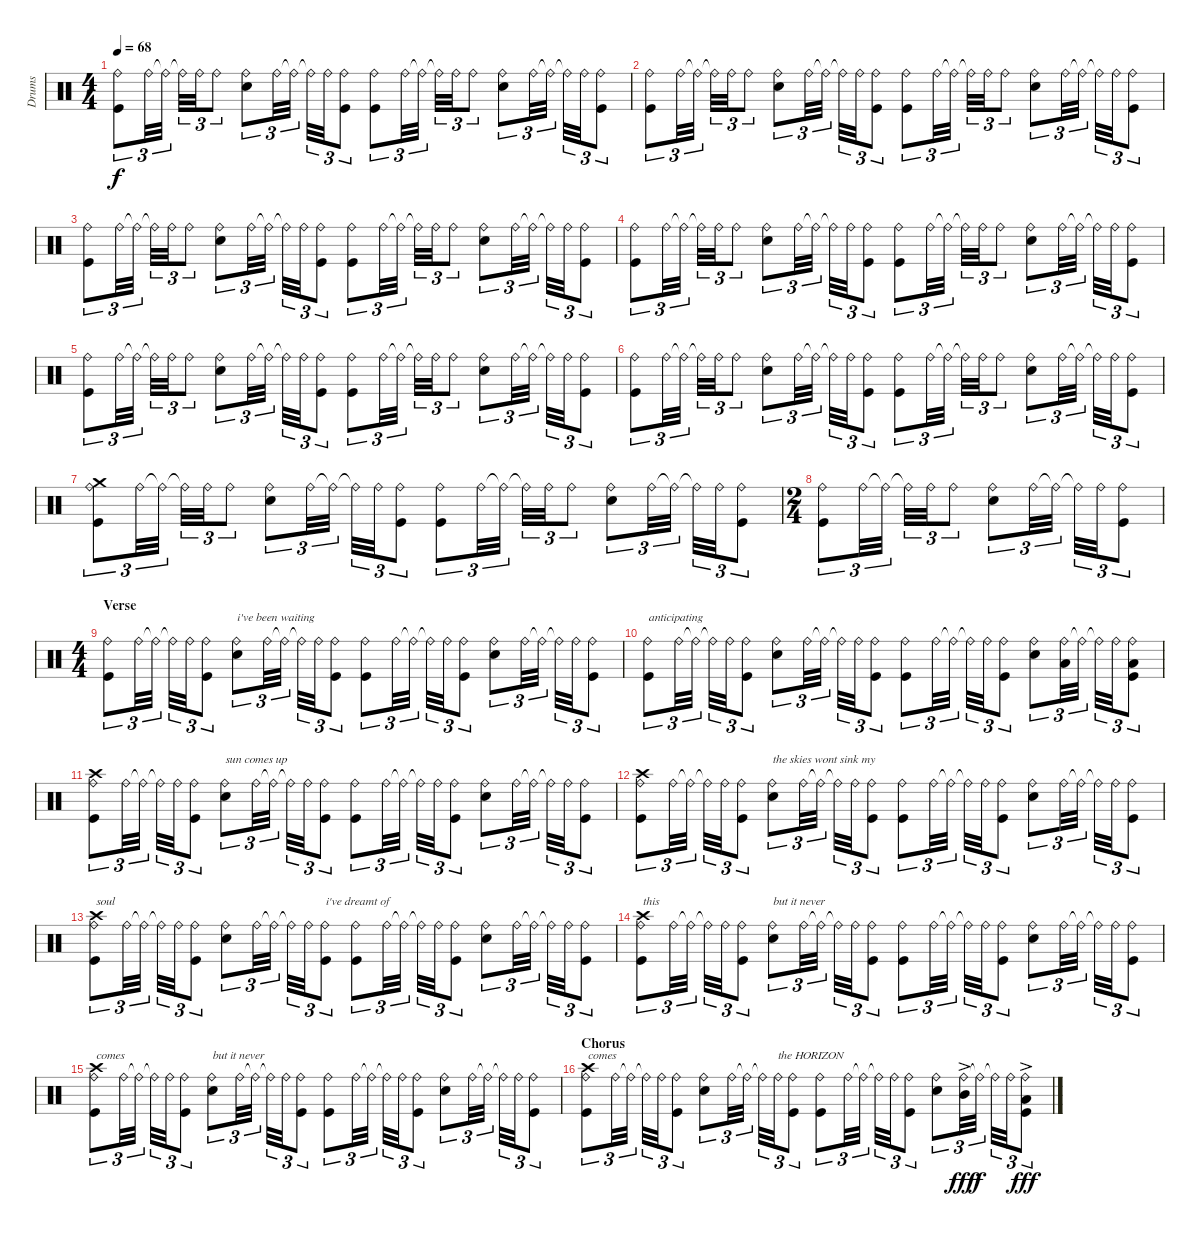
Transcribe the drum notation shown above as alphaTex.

\track ("Drums" "Drums") {instrument percussion}
\staff {score}
\articulation defaults
\ts (4 4)
\tempo 68
\clef neutral
\ks c
("Ride (bell)" "Kick (hit)").8{tu (3 2) dy f} "Ride (bell)".32{tu (3 2)} "Ride (bell)"{t}.32{tu (3 2)} "Ride (bell)"{t}.32{tu (3 2)} "Ride (bell)".32{tu (3 2)} "Ride (bell)".8{tu (3 2)} ("Ride (bell)" "Snare (hit) 2").8{tu (3 2)} "Ride (bell)".32{tu (3 2)} "Ride (bell)"{t}.32{tu (3 2)} "Ride (bell)"{t}.32{tu (3 2)} "Ride (bell)".32{tu (3 2)} ("Ride (bell)" "Kick (hit)").8{tu (3 2)} ("Ride (bell)" "Kick (hit)").8{tu (3 2)} "Ride (bell)".32{tu (3 2)} "Ride (bell)"{t}.32{tu (3 2)} "Ride (bell)"{t}.32{tu (3 2)} "Ride (bell)".32{tu (3 2)} "Ride (bell)".8{tu (3 2)} ("Ride (bell)" "Snare (hit) 2").8{tu (3 2)} "Ride (bell)".32{tu (3 2)} "Ride (bell)"{t}.32{tu (3 2)} "Ride (bell)"{t}.32{tu (3 2)} "Ride (bell)".32{tu (3 2)} ("Ride (bell)" "Kick (hit)").8{tu (3 2)} |
("Ride (bell)" "Kick (hit)").8{tu (3 2)} "Ride (bell)".32{tu (3 2)} "Ride (bell)"{t}.32{tu (3 2)} "Ride (bell)"{t}.32{tu (3 2)} "Ride (bell)".32{tu (3 2)} "Ride (bell)".8{tu (3 2)} ("Ride (bell)" "Snare (hit) 2").8{tu (3 2)} "Ride (bell)".32{tu (3 2)} "Ride (bell)"{t}.32{tu (3 2)} "Ride (bell)"{t}.32{tu (3 2)} "Ride (bell)".32{tu (3 2)} ("Ride (bell)" "Kick (hit)").8{tu (3 2)} ("Ride (bell)" "Kick (hit)").8{tu (3 2)} "Ride (bell)".32{tu (3 2)} "Ride (bell)"{t}.32{tu (3 2)} "Ride (bell)"{t}.32{tu (3 2)} "Ride (bell)".32{tu (3 2)} "Ride (bell)".8{tu (3 2)} ("Ride (bell)" "Snare (hit) 2").8{tu (3 2)} "Ride (bell)".32{tu (3 2)} "Ride (bell)"{t}.32{tu (3 2)} "Ride (bell)"{t}.32{tu (3 2)} "Ride (bell)".32{tu (3 2)} ("Ride (bell)" "Kick (hit)").8{tu (3 2)} |
("Ride (bell)" "Kick (hit)").8{tu (3 2)} "Ride (bell)".32{tu (3 2)} "Ride (bell)"{t}.32{tu (3 2)} "Ride (bell)"{t}.32{tu (3 2)} "Ride (bell)".32{tu (3 2)} "Ride (bell)".8{tu (3 2)} ("Ride (bell)" "Snare (hit) 2").8{tu (3 2)} "Ride (bell)".32{tu (3 2)} "Ride (bell)"{t}.32{tu (3 2)} "Ride (bell)"{t}.32{tu (3 2)} "Ride (bell)".32{tu (3 2)} ("Ride (bell)" "Kick (hit)").8{tu (3 2)} ("Ride (bell)" "Kick (hit)").8{tu (3 2)} "Ride (bell)".32{tu (3 2)} "Ride (bell)"{t}.32{tu (3 2)} "Ride (bell)"{t}.32{tu (3 2)} "Ride (bell)".32{tu (3 2)} "Ride (bell)".8{tu (3 2)} ("Ride (bell)" "Snare (hit) 2").8{tu (3 2)} "Ride (bell)".32{tu (3 2)} "Ride (bell)"{t}.32{tu (3 2)} "Ride (bell)"{t}.32{tu (3 2)} "Ride (bell)".32{tu (3 2)} ("Ride (bell)" "Kick (hit)").8{tu (3 2)} |
("Ride (bell)" "Kick (hit)").8{tu (3 2)} "Ride (bell)".32{tu (3 2)} "Ride (bell)"{t}.32{tu (3 2)} "Ride (bell)"{t}.32{tu (3 2)} "Ride (bell)".32{tu (3 2)} "Ride (bell)".8{tu (3 2)} ("Ride (bell)" "Snare (hit) 2").8{tu (3 2)} "Ride (bell)".32{tu (3 2)} "Ride (bell)"{t}.32{tu (3 2)} "Ride (bell)"{t}.32{tu (3 2)} "Ride (bell)".32{tu (3 2)} ("Ride (bell)" "Kick (hit)").8{tu (3 2)} ("Ride (bell)" "Kick (hit)").8{tu (3 2)} "Ride (bell)".32{tu (3 2)} "Ride (bell)"{t}.32{tu (3 2)} "Ride (bell)"{t}.32{tu (3 2)} "Ride (bell)".32{tu (3 2)} "Ride (bell)".8{tu (3 2)} ("Ride (bell)" "Snare (hit) 2").8{tu (3 2)} "Ride (bell)".32{tu (3 2)} "Ride (bell)"{t}.32{tu (3 2)} "Ride (bell)"{t}.32{tu (3 2)} "Ride (bell)".32{tu (3 2)} ("Ride (bell)" "Kick (hit)").8{tu (3 2)} |
("Ride (bell)" "Kick (hit)").8{tu (3 2)} "Ride (bell)".32{tu (3 2)} "Ride (bell)"{t}.32{tu (3 2)} "Ride (bell)"{t}.32{tu (3 2)} "Ride (bell)".32{tu (3 2)} "Ride (bell)".8{tu (3 2)} ("Ride (bell)" "Snare (hit) 2").8{tu (3 2)} "Ride (bell)".32{tu (3 2)} "Ride (bell)"{t}.32{tu (3 2)} "Ride (bell)"{t}.32{tu (3 2)} "Ride (bell)".32{tu (3 2)} ("Ride (bell)" "Kick (hit)").8{tu (3 2)} ("Ride (bell)" "Kick (hit)").8{tu (3 2)} "Ride (bell)".32{tu (3 2)} "Ride (bell)"{t}.32{tu (3 2)} "Ride (bell)"{t}.32{tu (3 2)} "Ride (bell)".32{tu (3 2)} "Ride (bell)".8{tu (3 2)} ("Ride (bell)" "Snare (hit) 2").8{tu (3 2)} "Ride (bell)".32{tu (3 2)} "Ride (bell)"{t}.32{tu (3 2)} "Ride (bell)"{t}.32{tu (3 2)} "Ride (bell)".32{tu (3 2)} ("Ride (bell)" "Kick (hit)").8{tu (3 2)} |
("Ride (bell)" "Kick (hit)").8{tu (3 2)} "Ride (bell)".32{tu (3 2)} "Ride (bell)"{t}.32{tu (3 2)} "Ride (bell)"{t}.32{tu (3 2)} "Ride (bell)".32{tu (3 2)} "Ride (bell)".8{tu (3 2)} ("Ride (bell)" "Snare (hit) 2").8{tu (3 2)} "Ride (bell)".32{tu (3 2)} "Ride (bell)"{t}.32{tu (3 2)} "Ride (bell)"{t}.32{tu (3 2)} "Ride (bell)".32{tu (3 2)} ("Ride (bell)" "Kick (hit)").8{tu (3 2)} ("Ride (bell)" "Kick (hit)").8{tu (3 2)} "Ride (bell)".32{tu (3 2)} "Ride (bell)"{t}.32{tu (3 2)} "Ride (bell)"{t}.32{tu (3 2)} "Ride (bell)".32{tu (3 2)} "Ride (bell)".8{tu (3 2)} ("Ride (bell)" "Snare (hit) 2").8{tu (3 2)} "Ride (bell)".32{tu (3 2)} "Ride (bell)"{t}.32{tu (3 2)} "Ride (bell)"{t}.32{tu (3 2)} "Ride (bell)".32{tu (3 2)} ("Ride (bell)" "Kick (hit)").8{tu (3 2)} |
("Ride (bell)" "Crash medium (hit)" "Kick (hit)").8{tu (3 2)} "Ride (bell)".32{tu (3 2)} "Ride (bell)"{t}.32{tu (3 2)} "Ride (bell)"{t}.32{tu (3 2)} "Ride (bell)".32{tu (3 2)} "Ride (bell)".8{tu (3 2)} ("Ride (bell)" "Snare (hit) 2").8{tu (3 2)} "Ride (bell)".32{tu (3 2)} "Ride (bell)"{t}.32{tu (3 2)} "Ride (bell)"{t}.32{tu (3 2)} "Ride (bell)".32{tu (3 2)} ("Ride (bell)" "Kick (hit)").8{tu (3 2)} ("Ride (bell)" "Kick (hit)").8{tu (3 2)} "Ride (bell)".32{tu (3 2)} "Ride (bell)"{t}.32{tu (3 2)} "Ride (bell)"{t}.32{tu (3 2)} "Ride (bell)".32{tu (3 2)} "Ride (bell)".8{tu (3 2)} ("Ride (bell)" "Snare (hit) 2").8{tu (3 2)} "Ride (bell)".32{tu (3 2)} "Ride (bell)"{t}.32{tu (3 2)} "Ride (bell)"{t}.32{tu (3 2)} "Ride (bell)".32{tu (3 2)} ("Ride (bell)" "Kick (hit)").8{tu (3 2)} |
\ts (2 4)
("Ride (bell)" "Kick (hit)").8{tu (3 2)} "Ride (bell)".32{tu (3 2)} "Ride (bell)"{t}.32{tu (3 2)} "Ride (bell)"{t}.32{tu (3 2)} "Ride (bell)".32{tu (3 2)} "Ride (bell)".8{tu (3 2)} ("Ride (bell)" "Snare (hit) 2").8{tu (3 2)} "Ride (bell)".32{tu (3 2)} "Ride (bell)"{t}.32{tu (3 2)} "Ride (bell)"{t}.32{tu (3 2)} "Ride (bell)".32{tu (3 2)} ("Ride (bell)" "Kick (hit)").8{tu (3 2)} |
\ts (4 4)
\section ("" "Verse")
("Ride (bell)" "Kick (hit)").8{tu (3 2)} "Ride (bell)".32{tu (3 2)} "Ride (bell)"{t}.32{tu (3 2)} "Ride (bell)"{t}.32{tu (3 2)} "Ride (bell)".32{tu (3 2)} ("Ride (bell)" "Kick (hit)").8{tu (3 2)} ("Ride (bell)" "Snare (hit) 2").8{tu (3 2) txt "i've been waiting"} "Ride (bell)".32{tu (3 2)} "Ride (bell)"{t}.32{tu (3 2)} "Ride (bell)"{t}.32{tu (3 2)} "Ride (bell)".32{tu (3 2)} ("Ride (bell)" "Kick (hit)").8{tu (3 2)} ("Ride (bell)" "Kick (hit)").8{tu (3 2)} "Ride (bell)".32{tu (3 2)} "Ride (bell)"{t}.32{tu (3 2)} "Ride (bell)"{t}.32{tu (3 2)} "Ride (bell)".32{tu (3 2)} ("Ride (bell)" "Kick (hit)").8{tu (3 2)} ("Ride (bell)" "Snare (hit) 2").8{tu (3 2)} "Ride (bell)".32{tu (3 2)} "Ride (bell)"{t}.32{tu (3 2)} "Ride (bell)"{t}.32{tu (3 2)} "Ride (bell)".32{tu (3 2)} ("Ride (bell)" "Kick (hit)").8{tu (3 2)} |
("Ride (bell)" "Kick (hit)").8{tu (3 2) txt "anticipating"} "Ride (bell)".32{tu (3 2)} "Ride (bell)"{t}.32{tu (3 2)} "Ride (bell)"{t}.32{tu (3 2)} "Ride (bell)".32{tu (3 2)} ("Ride (bell)" "Kick (hit)").8{tu (3 2)} ("Ride (bell)" "Snare (hit) 2").8{tu (3 2)} "Ride (bell)".32{tu (3 2)} "Ride (bell)"{t}.32{tu (3 2)} "Ride (bell)"{t}.32{tu (3 2)} "Ride (bell)".32{tu (3 2)} ("Ride (bell)" "Kick (hit)").8{tu (3 2)} ("Ride (bell)" "Kick (hit)").8{tu (3 2)} "Ride (bell)".32{tu (3 2)} "Ride (bell)"{t}.32{tu (3 2)} "Ride (bell)"{t}.32{tu (3 2)} "Ride (bell)".32{tu (3 2)} ("Ride (bell)" "Kick (hit)").8{tu (3 2)} ("Ride (bell)" "Snare (hit) 2").8{tu (3 2)} ("Ride (bell)" "Low Tom (hit)").32{tu (3 2)} "Ride (bell)"{t}.32{tu (3 2)} "Ride (bell)"{t}.32{tu (3 2)} "Ride (bell)".32{tu (3 2)} ("Ride (bell)" "Low Tom (hit)" "Kick (hit)").8{tu (3 2)} |
("Ride (bell)" "Crash high (hit)" "Kick (hit)").8{tu (3 2)} "Ride (bell)".32{tu (3 2)} "Ride (bell)"{t}.32{tu (3 2)} "Ride (bell)"{t}.32{tu (3 2)} "Ride (bell)".32{tu (3 2)} ("Ride (bell)" "Kick (hit)").8{tu (3 2)} ("Ride (bell)" "Snare (hit) 2").8{tu (3 2) txt "sun comes up "} "Ride (bell)".32{tu (3 2)} "Ride (bell)"{t}.32{tu (3 2)} "Ride (bell)"{t}.32{tu (3 2)} "Ride (bell)".32{tu (3 2)} ("Ride (bell)" "Kick (hit)").8{tu (3 2)} ("Ride (bell)" "Kick (hit)").8{tu (3 2)} "Ride (bell)".32{tu (3 2)} "Ride (bell)"{t}.32{tu (3 2)} "Ride (bell)"{t}.32{tu (3 2)} "Ride (bell)".32{tu (3 2)} ("Ride (bell)" "Kick (hit)").8{tu (3 2)} ("Ride (bell)" "Snare (hit) 2").8{tu (3 2)} "Ride (bell)".32{tu (3 2)} "Ride (bell)"{t}.32{tu (3 2)} "Ride (bell)"{t}.32{tu (3 2)} "Ride (bell)".32{tu (3 2)} ("Ride (bell)" "Kick (hit)").8{tu (3 2)} |
("Ride (bell)" "Crash high (hit)" "Kick (hit)").8{tu (3 2)} "Ride (bell)".32{tu (3 2)} "Ride (bell)"{t}.32{tu (3 2)} "Ride (bell)"{t}.32{tu (3 2)} "Ride (bell)".32{tu (3 2)} ("Ride (bell)" "Kick (hit)").8{tu (3 2)} ("Ride (bell)" "Snare (hit) 2").8{tu (3 2) txt "the skies wont sink my "} "Ride (bell)".32{tu (3 2)} "Ride (bell)"{t}.32{tu (3 2)} "Ride (bell)"{t}.32{tu (3 2)} "Ride (bell)".32{tu (3 2)} ("Ride (bell)" "Kick (hit)").8{tu (3 2)} ("Ride (bell)" "Kick (hit)").8{tu (3 2)} "Ride (bell)".32{tu (3 2)} "Ride (bell)"{t}.32{tu (3 2)} "Ride (bell)"{t}.32{tu (3 2)} "Ride (bell)".32{tu (3 2)} ("Ride (bell)" "Kick (hit)").8{tu (3 2)} ("Ride (bell)" "Snare (hit) 2").8{tu (3 2)} "Ride (bell)".32{tu (3 2)} "Ride (bell)"{t}.32{tu (3 2)} "Ride (bell)"{t}.32{tu (3 2)} "Ride (bell)".32{tu (3 2)} ("Ride (bell)" "Kick (hit)").8{tu (3 2)} |
("Ride (bell)" "Crash high (hit)" "Kick (hit)").8{tu (3 2) txt "soul"} "Ride (bell)".32{tu (3 2)} "Ride (bell)"{t}.32{tu (3 2)} "Ride (bell)"{t}.32{tu (3 2)} "Ride (bell)".32{tu (3 2)} ("Ride (bell)" "Kick (hit)").8{tu (3 2)} ("Ride (bell)" "Snare (hit) 2").8{tu (3 2)} "Ride (bell)".32{tu (3 2)} "Ride (bell)"{t}.32{tu (3 2)} "Ride (bell)"{t}.32{tu (3 2)} "Ride (bell)".32{tu (3 2)} ("Ride (bell)" "Kick (hit)").8{tu (3 2) txt "i've dreamt of"} ("Ride (bell)" "Kick (hit)").8{tu (3 2)} "Ride (bell)".32{tu (3 2)} "Ride (bell)"{t}.32{tu (3 2)} "Ride (bell)"{t}.32{tu (3 2)} "Ride (bell)".32{tu (3 2)} ("Ride (bell)" "Kick (hit)").8{tu (3 2)} ("Ride (bell)" "Snare (hit) 2").8{tu (3 2)} "Ride (bell)".32{tu (3 2)} "Ride (bell)"{t}.32{tu (3 2)} "Ride (bell)"{t}.32{tu (3 2)} "Ride (bell)".32{tu (3 2)} ("Ride (bell)" "Kick (hit)").8{tu (3 2)} |
("Ride (bell)" "Crash high (hit)" "Kick (hit)").8{tu (3 2) txt "this"} "Ride (bell)".32{tu (3 2)} "Ride (bell)"{t}.32{tu (3 2)} "Ride (bell)"{t}.32{tu (3 2)} "Ride (bell)".32{tu (3 2)} ("Ride (bell)" "Kick (hit)").8{tu (3 2)} ("Ride (bell)" "Snare (hit) 2").8{tu (3 2) txt "but it never"} "Ride (bell)".32{tu (3 2)} "Ride (bell)"{t}.32{tu (3 2)} "Ride (bell)"{t}.32{tu (3 2)} "Ride (bell)".32{tu (3 2)} ("Ride (bell)" "Kick (hit)").8{tu (3 2)} ("Ride (bell)" "Kick (hit)").8{tu (3 2)} "Ride (bell)".32{tu (3 2)} "Ride (bell)"{t}.32{tu (3 2)} "Ride (bell)"{t}.32{tu (3 2)} "Ride (bell)".32{tu (3 2)} ("Ride (bell)" "Kick (hit)").8{tu (3 2)} ("Ride (bell)" "Snare (hit) 2").8{tu (3 2)} "Ride (bell)".32{tu (3 2)} "Ride (bell)"{t}.32{tu (3 2)} "Ride (bell)"{t}.32{tu (3 2)} "Ride (bell)".32{tu (3 2)} ("Ride (bell)" "Kick (hit)").8{tu (3 2)} |
("Ride (bell)" "Crash high (hit)" "Kick (hit)").8{tu (3 2) txt "comes"} "Ride (bell)".32{tu (3 2)} "Ride (bell)"{t}.32{tu (3 2)} "Ride (bell)"{t}.32{tu (3 2)} "Ride (bell)".32{tu (3 2)} ("Ride (bell)" "Kick (hit)").8{tu (3 2)} ("Ride (bell)" "Snare (hit) 2").8{tu (3 2) txt "but it never"} "Ride (bell)".32{tu (3 2)} "Ride (bell)"{t}.32{tu (3 2)} "Ride (bell)"{t}.32{tu (3 2)} "Ride (bell)".32{tu (3 2)} ("Ride (bell)" "Kick (hit)").8{tu (3 2)} ("Ride (bell)" "Kick (hit)").8{tu (3 2)} "Ride (bell)".32{tu (3 2)} "Ride (bell)"{t}.32{tu (3 2)} "Ride (bell)"{t}.32{tu (3 2)} "Ride (bell)".32{tu (3 2)} ("Ride (bell)" "Kick (hit)").8{tu (3 2)} ("Ride (bell)" "Snare (hit) 2").8{tu (3 2)} "Ride (bell)".32{tu (3 2)} "Ride (bell)"{t}.32{tu (3 2)} "Ride (bell)"{t}.32{tu (3 2)} "Ride (bell)".32{tu (3 2)} ("Ride (bell)" "Kick (hit)").8{tu (3 2)} |
\section ("" "Chorus")
("Ride (bell)" "Crash high (hit)" "Kick (hit)").8{tu (3 2) txt "comes"} "Ride (bell)".32{tu (3 2)} "Ride (bell)"{t}.32{tu (3 2)} "Ride (bell)"{t}.32{tu (3 2)} "Ride (bell)".32{tu (3 2)} ("Ride (bell)" "Kick (hit)").8{tu (3 2)} ("Ride (bell)" "Snare (hit) 2").8{tu (3 2)} "Ride (bell)".32{tu (3 2)} "Ride (bell)"{t}.32{tu (3 2)} "Ride (bell)"{t}.32{tu (3 2)} "Ride (bell)".32{tu (3 2) txt "the HORIZON"} ("Ride (bell)" "Kick (hit)").8{tu (3 2)} ("Ride (bell)" "Kick (hit)").8{tu (3 2)} "Ride (bell)".32{tu (3 2)} "Ride (bell)"{t}.32{tu (3 2)} "Ride (bell)"{t}.32{tu (3 2)} "Ride (bell)".32{tu (3 2)} ("Ride (bell)" "Kick (hit)").8{tu (3 2)} ("Ride (bell)" "Snare (hit) 2").8{tu (3 2)} ("Ride (bell)" "Mid Tom (hit)"{ac}).32{tu (3 2) dy fff} "Ride (bell)"{t}.32{tu (3 2) dy f} "Ride (bell)"{t}.32{tu (3 2)} "Ride (bell)".32{tu (3 2)} ("Ride (bell)" "Low Tom (hit)"{ac} "Kick (hit)").8{tu (3 2) dy fff}
